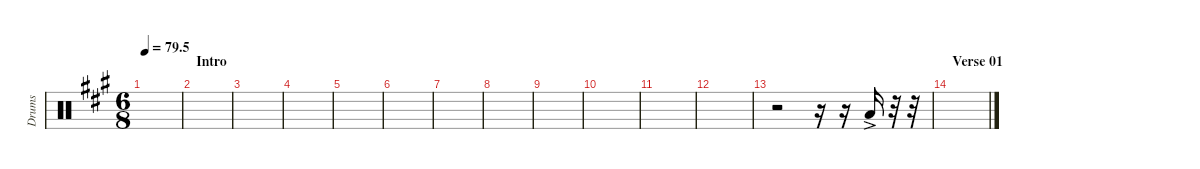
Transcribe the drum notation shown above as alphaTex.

\defaultSystemsLayout 4
\hideDynamics
\bracketExtendMode nobrackets
\otherSystemsTrackNameOrientation horizontal
\track ("Tom 03" "Drums") {instrument percussion}
\staff {score}
\articulation defaults
\ts (6 8)
\tempo
79.5
\accidentals auto
\clef neutral
\ottava regular
\simile none
\scale
0.474178
\ks a
|
\section ("" "Intro")
\scale
0.262911 |
\scale
0.262911 |
\scale
0.333333 |
\scale
0.333333 |
\scale
0.333333 |
\scale
0.333333 |
\scale
0.333333 |
\scale
0.333333 |
\scale
0.333333 |
\scale
0.333333 |
\scale
0.333333 |
\scale
0.333333 r.2 r.16 r.16 "Low Tom (hit)"{ac acc forcenatural}.16 r.32 r.32 |
\section ("" "Verse 01")
\scale
0.333333 |
\scale
0.333333 |
\scale
0.333333
